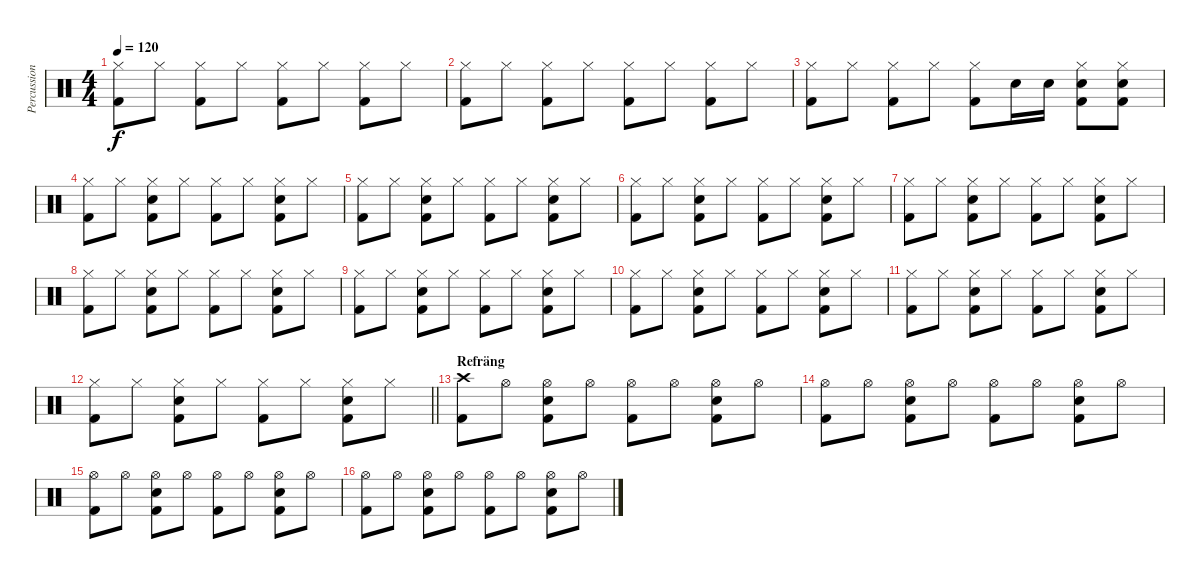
\track ("Percussion" "Percussion") {instrument percussion}
\staff {score}
\articulation defaults
\ts (4 4)
\tempo 120
\clef neutral
\ks c
("Hi-Hat (closed)" "Kick (hit) 2").8{dy f} "Hi-Hat (closed)".8 ("Hi-Hat (closed)" "Kick (hit) 2").8 "Hi-Hat (closed)".8 ("Hi-Hat (closed)" "Kick (hit) 2").8 "Hi-Hat (closed)".8 ("Hi-Hat (closed)" "Kick (hit) 2").8 "Hi-Hat (closed)".8 |
("Hi-Hat (closed)" "Kick (hit) 2").8 "Hi-Hat (closed)".8 ("Hi-Hat (closed)" "Kick (hit) 2").8 "Hi-Hat (closed)".8 ("Hi-Hat (closed)" "Kick (hit) 2").8 "Hi-Hat (closed)".8 ("Hi-Hat (closed)" "Kick (hit) 2").8 "Hi-Hat (closed)".8 |
("Hi-Hat (closed)" "Kick (hit) 2").8 "Hi-Hat (closed)".8 ("Hi-Hat (closed)" "Kick (hit) 2").8 "Hi-Hat (closed)".8 ("Hi-Hat (closed)" "Kick (hit) 2").8 "Snare (hit) 2".16 "Snare (hit) 2".16 ("Hi-Hat (closed)" "Snare (hit) 2" "Kick (hit) 2").8 ("Hi-Hat (closed)" "Snare (hit) 2" "Kick (hit) 2").8 |
("Hi-Hat (closed)" "Kick (hit) 2").8 "Hi-Hat (closed)".8 ("Hi-Hat (closed)" "Snare (hit) 2" "Kick (hit) 2").8 "Hi-Hat (closed)".8 ("Hi-Hat (closed)" "Kick (hit) 2").8 "Hi-Hat (closed)".8 ("Hi-Hat (closed)" "Snare (hit) 2" "Kick (hit) 2").8 "Hi-Hat (closed)".8 |
("Hi-Hat (closed)" "Kick (hit) 2").8 "Hi-Hat (closed)".8 ("Hi-Hat (closed)" "Snare (hit) 2" "Kick (hit) 2").8 "Hi-Hat (closed)".8 ("Hi-Hat (closed)" "Kick (hit) 2").8 "Hi-Hat (closed)".8 ("Hi-Hat (closed)" "Snare (hit) 2" "Kick (hit) 2").8 "Hi-Hat (closed)".8 |
("Hi-Hat (closed)" "Kick (hit) 2").8 "Hi-Hat (closed)".8 ("Hi-Hat (closed)" "Snare (hit) 2" "Kick (hit) 2").8 "Hi-Hat (closed)".8 ("Hi-Hat (closed)" "Kick (hit) 2").8 "Hi-Hat (closed)".8 ("Hi-Hat (closed)" "Snare (hit) 2" "Kick (hit) 2").8 "Hi-Hat (closed)".8 |
("Hi-Hat (closed)" "Kick (hit) 2").8 "Hi-Hat (closed)".8 ("Hi-Hat (closed)" "Snare (hit) 2" "Kick (hit) 2").8 "Hi-Hat (closed)".8 ("Hi-Hat (closed)" "Kick (hit) 2").8 "Hi-Hat (closed)".8 ("Hi-Hat (closed)" "Snare (hit) 2" "Kick (hit) 2").8 "Hi-Hat (closed)".8 |
("Hi-Hat (closed)" "Kick (hit) 2").8 "Hi-Hat (closed)".8 ("Hi-Hat (closed)" "Snare (hit) 2" "Kick (hit) 2").8 "Hi-Hat (closed)".8 ("Hi-Hat (closed)" "Kick (hit) 2").8 "Hi-Hat (closed)".8 ("Hi-Hat (closed)" "Snare (hit) 2" "Kick (hit) 2").8 "Hi-Hat (closed)".8 |
("Hi-Hat (closed)" "Kick (hit) 2").8 "Hi-Hat (closed)".8 ("Hi-Hat (closed)" "Snare (hit) 2" "Kick (hit) 2").8 "Hi-Hat (closed)".8 ("Hi-Hat (closed)" "Kick (hit) 2").8 "Hi-Hat (closed)".8 ("Hi-Hat (closed)" "Snare (hit) 2" "Kick (hit) 2").8 "Hi-Hat (closed)".8 |
("Hi-Hat (closed)" "Kick (hit) 2").8 "Hi-Hat (closed)".8 ("Hi-Hat (closed)" "Snare (hit) 2" "Kick (hit) 2").8 "Hi-Hat (closed)".8 ("Hi-Hat (closed)" "Kick (hit) 2").8 "Hi-Hat (closed)".8 ("Hi-Hat (closed)" "Snare (hit) 2" "Kick (hit) 2").8 "Hi-Hat (closed)".8 |
("Hi-Hat (closed)" "Kick (hit) 2").8 "Hi-Hat (closed)".8 ("Hi-Hat (closed)" "Snare (hit) 2" "Kick (hit) 2").8 "Hi-Hat (closed)".8 ("Hi-Hat (closed)" "Kick (hit) 2").8 "Hi-Hat (closed)".8 ("Hi-Hat (closed)" "Snare (hit) 2" "Kick (hit) 2").8 "Hi-Hat (closed)".8 |
\barLineRight lightlight
("Hi-Hat (closed)" "Kick (hit) 2").8 "Hi-Hat (closed)".8 ("Hi-Hat (closed)" "Snare (hit) 2" "Kick (hit) 2").8 "Hi-Hat (closed)".8 ("Hi-Hat (closed)" "Kick (hit) 2").8 "Hi-Hat (closed)".8 ("Hi-Hat (closed)" "Snare (hit) 2" "Kick (hit) 2").8 "Hi-Hat (closed)".8 |
\section ("" "Refräng")
("Crash high (hit)" "Kick (hit) 2").8 "Hi-Hat (open)".8 ("Hi-Hat (open)" "Snare (hit) 2" "Kick (hit) 2").8 "Hi-Hat (open)".8 ("Hi-Hat (open)" "Kick (hit) 2").8 "Hi-Hat (open)".8 ("Hi-Hat (open)" "Snare (hit) 2" "Kick (hit) 2").8 "Hi-Hat (open)".8 |
("Hi-Hat (open)" "Kick (hit) 2").8 "Hi-Hat (open)".8 ("Hi-Hat (open)" "Snare (hit) 2" "Kick (hit) 2").8 "Hi-Hat (open)".8 ("Hi-Hat (open)" "Kick (hit) 2").8 "Hi-Hat (open)".8 ("Hi-Hat (open)" "Snare (hit) 2" "Kick (hit) 2").8 "Hi-Hat (open)".8 |
("Hi-Hat (open)" "Kick (hit) 2").8 "Hi-Hat (open)".8 ("Hi-Hat (open)" "Snare (hit) 2" "Kick (hit) 2").8 "Hi-Hat (open)".8 ("Hi-Hat (open)" "Kick (hit) 2").8 "Hi-Hat (open)".8 ("Hi-Hat (open)" "Snare (hit) 2" "Kick (hit) 2").8 "Hi-Hat (open)".8 |
("Hi-Hat (open)" "Kick (hit) 2").8 "Hi-Hat (open)".8 ("Hi-Hat (open)" "Snare (hit) 2" "Kick (hit) 2").8 "Hi-Hat (open)".8 ("Hi-Hat (open)" "Kick (hit) 2").8 "Hi-Hat (open)".8 ("Hi-Hat (open)" "Snare (hit) 2" "Kick (hit) 2").8 "Hi-Hat (open)".8
